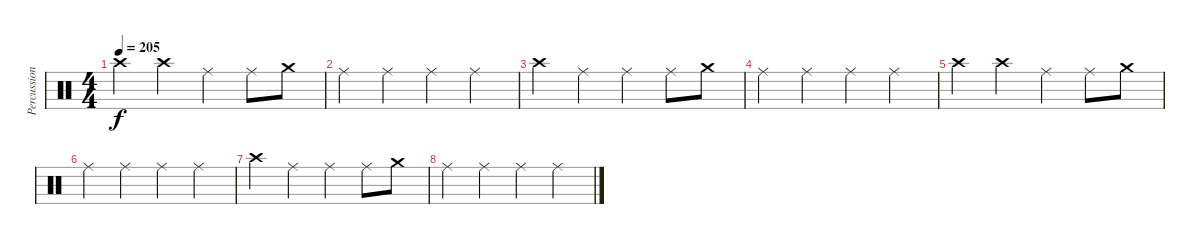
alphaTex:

\track ("Percussion" "Percussion") {instrument percussion}
\staff {score}
\articulation defaults
\ts (4 4)
\tempo 205
\clef neutral
\ks c "Crash high (hit)".4{dy f} "Crash high (hit)".4 "Ride (middle)".4 "Ride (middle)".8 "Crash medium (hit)".8
|
"Ride (middle)".4 "Ride (middle)".4 "Ride (middle)".4 "Ride (middle)".4 |
"Crash high (hit)".4 "Ride (middle)".4 "Ride (middle)".4 "Ride (middle)".8 "Crash medium (hit)".8 |
"Ride (middle)".4 "Ride (middle)".4 "Ride (middle)".4 "Ride (middle)".4 |
"Crash high (hit)".4 "Crash high (hit)".4 "Ride (middle)".4 "Ride (middle)".8 "Crash medium (hit)".8 |
"Ride (middle)".4 "Ride (middle)".4 "Ride (middle)".4 "Ride (middle)".4 |
"Crash high (hit)".4 "Ride (middle)".4 "Ride (middle)".4 "Ride (middle)".8 "Crash medium (hit)".8 |
"Ride (middle)".4 "Ride (middle)".4 "Ride (middle)".4 "Ride (middle)".4
